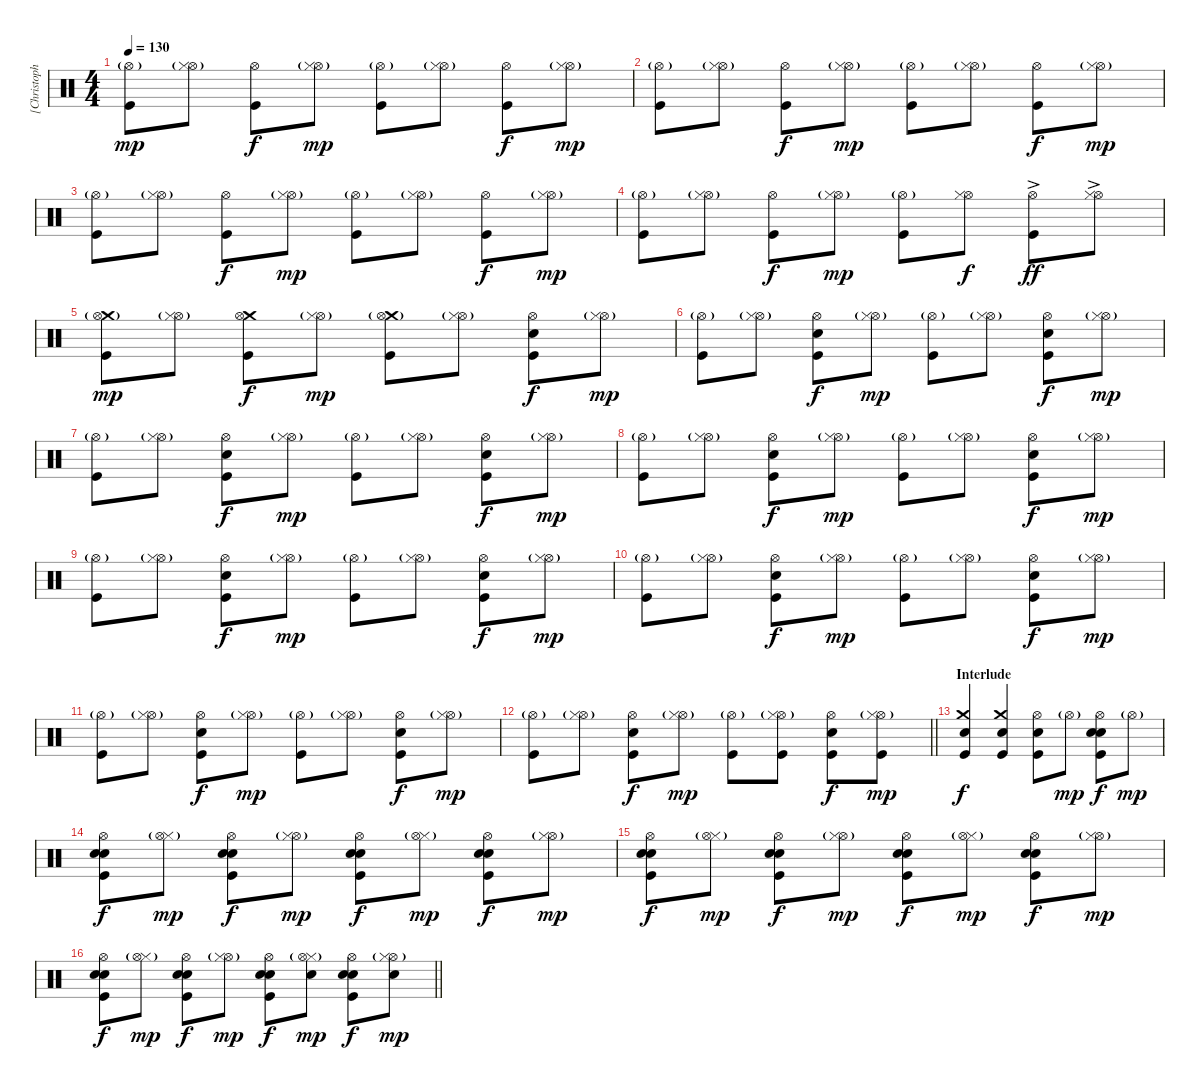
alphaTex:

\track ("[Christoph Schneider]  Drums" "[Christoph") {instrument percussion}
\staff {score}
\articulation defaults
\ts (4 4)
\tempo 130
\clef neutral
\ks c
("Hi-Hat (open)"{g} "Kick (hit)").8{dy mp} ("Hi-Hat (open)"{g} "Hi-Hat (closed)").8 ("Hi-Hat (open)" "Kick (hit)").8{dy f} ("Hi-Hat (open)"{g} "Hi-Hat (closed)").8{dy mp} ("Hi-Hat (open)"{g} "Kick (hit)").8 ("Hi-Hat (open)"{g} "Hi-Hat (closed)").8 ("Hi-Hat (open)" "Kick (hit)").8{dy f} ("Hi-Hat (open)"{g} "Hi-Hat (closed)").8{dy mp} |
("Hi-Hat (open)"{g} "Kick (hit)").8 ("Hi-Hat (open)"{g} "Hi-Hat (closed)").8 ("Hi-Hat (open)" "Kick (hit)").8{dy f} ("Hi-Hat (open)"{g} "Hi-Hat (closed)").8{dy mp} ("Hi-Hat (open)"{g} "Kick (hit)").8 ("Hi-Hat (open)"{g} "Hi-Hat (closed)").8 ("Hi-Hat (open)" "Kick (hit)").8{dy f} ("Hi-Hat (open)"{g} "Hi-Hat (closed)").8{dy mp} |
("Hi-Hat (open)"{g} "Kick (hit)").8 ("Hi-Hat (open)"{g} "Hi-Hat (closed)").8 ("Hi-Hat (open)" "Kick (hit)").8{dy f} ("Hi-Hat (open)"{g} "Hi-Hat (closed)").8{dy mp} ("Hi-Hat (open)"{g} "Kick (hit)").8 ("Hi-Hat (open)"{g} "Hi-Hat (closed)").8 ("Hi-Hat (open)" "Kick (hit)").8{dy f} ("Hi-Hat (open)"{g} "Hi-Hat (closed)").8{dy mp} |
("Hi-Hat (open)"{g} "Kick (hit)").8 ("Hi-Hat (open)"{g} "Hi-Hat (closed)").8 ("Hi-Hat (open)" "Kick (hit)").8{dy f} ("Hi-Hat (open)"{g} "Hi-Hat (closed)").8{dy mp} ("Hi-Hat (open)"{g} "Kick (hit)").8 ("Hi-Hat (open)" "Hi-Hat (closed)").8{dy f} ("Hi-Hat (open)"{ac} "Kick (hit)").8{dy ff} ("Hi-Hat (open)"{ac} "Hi-Hat (closed)").8 |
("Crash medium (hit)" "Hi-Hat (open)"{g} "Kick (hit)").8{dy mp} ("Hi-Hat (open)"{g} "Hi-Hat (closed)").8 ("Crash medium (hit)" "Hi-Hat (open)" "Kick (hit)").8{dy f} ("Hi-Hat (open)"{g} "Hi-Hat (closed)").8{dy mp} ("Crash medium (hit)" "Hi-Hat (open)"{g} "Kick (hit)").8 ("Hi-Hat (open)"{g} "Hi-Hat (closed)").8 ("Snare (hit) 2" "Hi-Hat (open)" "Kick (hit)").8{dy f} ("Hi-Hat (open)"{g} "Hi-Hat (closed)").8{dy mp} |
("Hi-Hat (open)"{g} "Kick (hit)").8 ("Hi-Hat (open)"{g} "Hi-Hat (closed)").8 ("Snare (hit) 2" "Hi-Hat (open)" "Kick (hit)").8{dy f} ("Hi-Hat (open)"{g} "Hi-Hat (closed)").8{dy mp} ("Hi-Hat (open)"{g} "Kick (hit)").8 ("Hi-Hat (open)"{g} "Hi-Hat (closed)").8 ("Snare (hit) 2" "Hi-Hat (open)" "Kick (hit)").8{dy f} ("Hi-Hat (open)"{g} "Hi-Hat (closed)").8{dy mp} |
("Hi-Hat (open)"{g} "Kick (hit)").8 ("Hi-Hat (open)"{g} "Hi-Hat (closed)").8 ("Snare (hit) 2" "Hi-Hat (open)" "Kick (hit)").8{dy f} ("Hi-Hat (open)"{g} "Hi-Hat (closed)").8{dy mp} ("Hi-Hat (open)"{g} "Kick (hit)").8 ("Hi-Hat (open)"{g} "Hi-Hat (closed)").8 ("Snare (hit) 2" "Hi-Hat (open)" "Kick (hit)").8{dy f} ("Hi-Hat (open)"{g} "Hi-Hat (closed)").8{dy mp} |
("Hi-Hat (open)"{g} "Kick (hit)").8 ("Hi-Hat (open)"{g} "Hi-Hat (closed)").8 ("Snare (hit) 2" "Hi-Hat (open)" "Kick (hit)").8{dy f} ("Hi-Hat (open)"{g} "Hi-Hat (closed)").8{dy mp} ("Hi-Hat (open)"{g} "Kick (hit)").8 ("Hi-Hat (open)"{g} "Hi-Hat (closed)").8 ("Snare (hit) 2" "Hi-Hat (open)" "Kick (hit)").8{dy f} ("Hi-Hat (open)"{g} "Hi-Hat (closed)").8{dy mp} |
("Hi-Hat (open)"{g} "Kick (hit)").8 ("Hi-Hat (open)"{g} "Hi-Hat (closed)").8 ("Snare (hit) 2" "Hi-Hat (open)" "Kick (hit)").8{dy f} ("Hi-Hat (open)"{g} "Hi-Hat (closed)").8{dy mp} ("Hi-Hat (open)"{g} "Kick (hit)").8 ("Hi-Hat (open)"{g} "Hi-Hat (closed)").8 ("Snare (hit) 2" "Hi-Hat (open)" "Kick (hit)").8{dy f} ("Hi-Hat (open)"{g} "Hi-Hat (closed)").8{dy mp} |
("Hi-Hat (open)"{g} "Kick (hit)").8 ("Hi-Hat (open)"{g} "Hi-Hat (closed)").8 ("Snare (hit) 2" "Hi-Hat (open)" "Kick (hit)").8{dy f} ("Hi-Hat (open)"{g} "Hi-Hat (closed)").8{dy mp} ("Hi-Hat (open)"{g} "Kick (hit)").8 ("Hi-Hat (open)"{g} "Hi-Hat (closed)").8 ("Snare (hit) 2" "Hi-Hat (open)" "Kick (hit)").8{dy f} ("Hi-Hat (open)"{g} "Hi-Hat (closed)").8{dy mp} |
("Hi-Hat (open)"{g} "Kick (hit)").8 ("Hi-Hat (open)"{g} "Hi-Hat (closed)").8 ("Snare (hit) 2" "Hi-Hat (open)" "Kick (hit)").8{dy f} ("Hi-Hat (open)"{g} "Hi-Hat (closed)").8{dy mp} ("Hi-Hat (open)"{g} "Kick (hit)").8 ("Hi-Hat (open)"{g} "Hi-Hat (closed)").8 ("Snare (hit) 2" "Hi-Hat (open)" "Kick (hit)").8{dy f} ("Hi-Hat (open)"{g} "Hi-Hat (closed)").8{dy mp} |
\barLineRight lightlight
("Hi-Hat (open)"{g} "Kick (hit)").8 ("Hi-Hat (open)"{g} "Hi-Hat (closed)").8 ("Snare (hit) 2" "Hi-Hat (open)" "Kick (hit)").8{dy f} ("Hi-Hat (open)"{g} "Hi-Hat (closed)").8{dy mp} ("Hi-Hat (open)"{g} "Kick (hit)").8 ("Hi-Hat (open)"{g} "Hi-Hat (closed)" "Kick (hit)").8 ("Snare (hit) 2" "Hi-Hat (open)" "Kick (hit)").8{dy f} ("Hi-Hat (open)"{g} "Hi-Hat (closed)" "Kick (hit)").8{dy mp} |
\section ("" "Interlude")
("Crash medium (hit)" "Snare (hit) 2" "Kick (hit)").4{dy f} ("Crash medium (hit)" "Snare (hit) 2" "Kick (hit)").4 ("Hi-Hat (open)" "Snare (hit) 2" "Kick (hit)").8 "Hi-Hat (open)"{g}.8{dy mp} ("Snare (hit) 2" "Hi-Hat (open)" "Snare (hit) 2" "Kick (hit)").8{dy f} "Hi-Hat (open)"{g}.8{dy mp} |
("Snare (hit) 2" "Hi-Hat (open)" "Snare (hit) 2" "Kick (hit)").8{dy f} ("Hi-Hat (closed)" "Hi-Hat (open)"{g}).8{dy mp} ("Snare (hit) 2" "Hi-Hat (open)" "Snare (hit) 2" "Kick (hit)").8{dy f} ("Hi-Hat (open)"{g} "Hi-Hat (closed)").8{dy mp} ("Snare (hit) 2" "Hi-Hat (open)" "Snare (hit) 2" "Kick (hit)").8{dy f} ("Hi-Hat (closed)" "Hi-Hat (open)"{g}).8{dy mp} ("Snare (hit) 2" "Hi-Hat (open)" "Snare (hit) 2" "Kick (hit)").8{dy f} ("Hi-Hat (open)"{g} "Hi-Hat (closed)").8{dy mp} |
("Snare (hit) 2" "Hi-Hat (open)" "Snare (hit) 2" "Kick (hit)").8{dy f} ("Hi-Hat (closed)" "Hi-Hat (open)"{g}).8{dy mp} ("Snare (hit) 2" "Hi-Hat (open)" "Snare (hit) 2" "Kick (hit)").8{dy f} ("Hi-Hat (open)"{g} "Hi-Hat (closed)").8{dy mp} ("Snare (hit) 2" "Hi-Hat (open)" "Snare (hit) 2" "Kick (hit)").8{dy f} ("Hi-Hat (closed)" "Hi-Hat (open)"{g}).8{dy mp} ("Snare (hit) 2" "Hi-Hat (open)" "Snare (hit) 2" "Kick (hit)").8{dy f} ("Hi-Hat (open)"{g} "Hi-Hat (closed)").8{dy mp} |
\barLineRight lightlight
("Snare (hit) 2" "Hi-Hat (open)" "Snare (hit) 2" "Kick (hit)").8{dy f} ("Hi-Hat (closed)" "Hi-Hat (open)"{g}).8{dy mp} ("Snare (hit) 2" "Hi-Hat (open)" "Snare (hit) 2" "Kick (hit)").8{dy f} ("Hi-Hat (open)"{g} "Hi-Hat (closed)").8{dy mp} ("Snare (hit) 2" "Hi-Hat (open)" "Snare (hit) 2" "Kick (hit)").8{dy f} ("Snare (hit) 2" "Hi-Hat (closed)" "Hi-Hat (open)"{g}).8{dy mp} ("Snare (hit) 2" "Hi-Hat (open)" "Snare (hit) 2" "Kick (hit)").8{dy f} ("Snare (hit) 2" "Hi-Hat (open)"{g} "Hi-Hat (closed)").8{dy mp}
